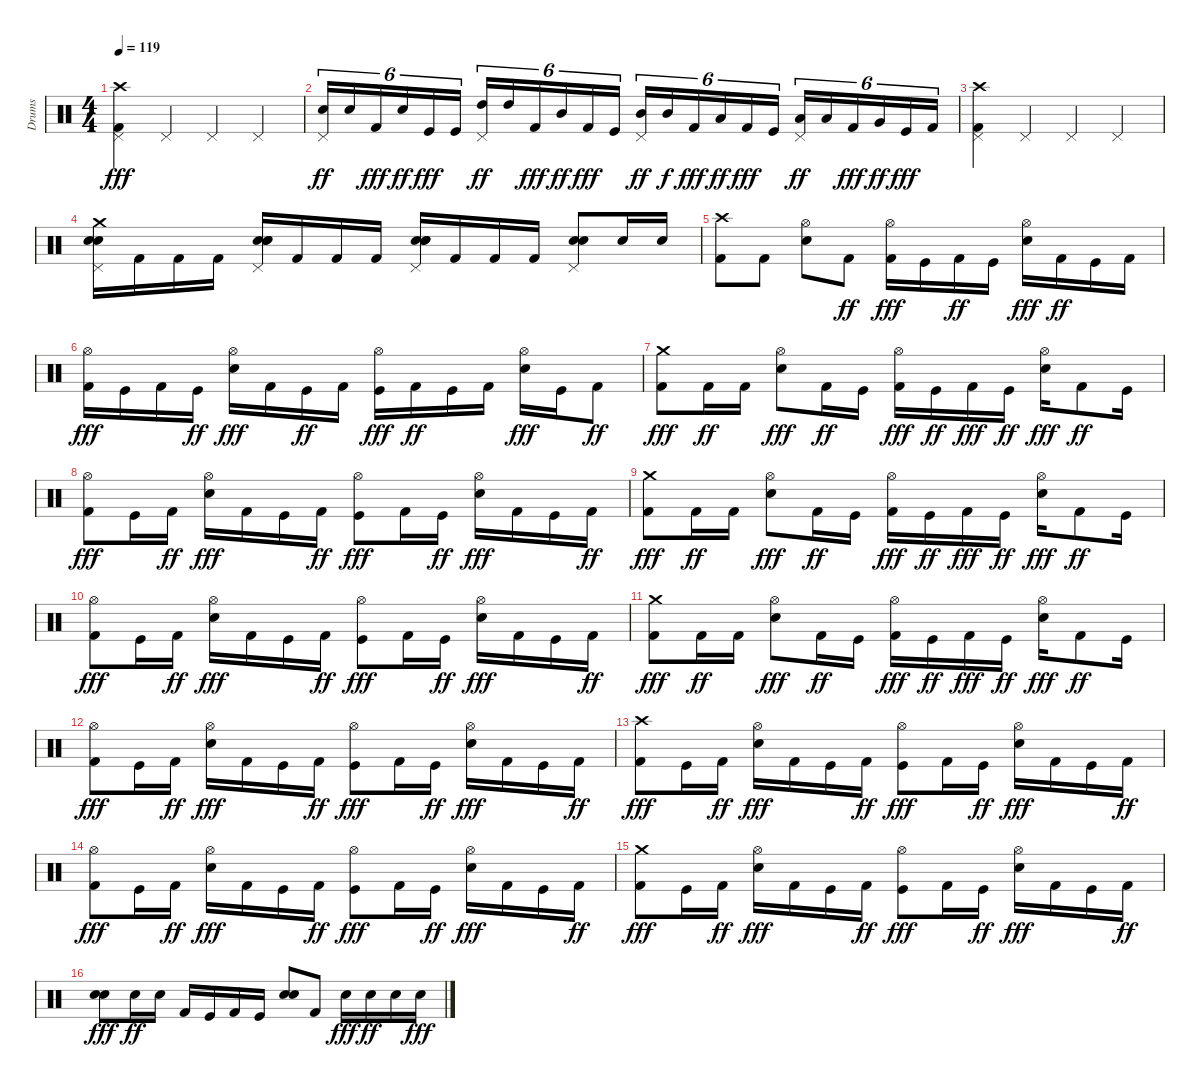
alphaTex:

\track ("Drums" "Drums") {instrument percussion}
\staff {score}
\articulation defaults
\ts (4 4)
\tempo 119
\clef neutral
\ks c
("Pedal Hi-Hat (hit)" "Kick (hit) 2" "Crash high (hit)").4{dy fff} "Pedal Hi-Hat (hit)".4 "Pedal Hi-Hat (hit)".4 "Pedal Hi-Hat (hit)".4 |
("Pedal Hi-Hat (hit)" "Electric Snare (hit)").16{tu (6 4) dy ff} "Snare (hit) 2".16{tu (6 4)} "Kick (hit) 2".16{tu (6 4) dy fff} "Snare (hit) 2".16{tu (6 4) dy ff} "Kick (hit)".16{tu (6 4) dy fff} "Kick (hit)".16{tu (6 4)} ("Pedal Hi-Hat (hit)" "High Tom (hit)").16{tu (6 4) dy ff} "High Tom (hit)".16{tu (6 4)} "Kick (hit) 2".16{tu (6 4) dy fff} "Mid Tom (hit)".16{tu (6 4) dy ff} "Kick (hit) 2".16{tu (6 4) dy fff} "Kick (hit)".16{tu (6 4)} ("Pedal Hi-Hat (hit)" "Mid Tom (hit)").16{tu (6 4) dy ff} "Mid Tom (hit)".16{tu (6 4) dy f} "Kick (hit) 2".16{tu (6 4) dy fff} "Low Tom (hit)".16{tu (6 4) dy ff} "Kick (hit) 2".16{tu (6 4) dy fff} "Kick (hit)".16{tu (6 4)} ("Pedal Hi-Hat (hit)" "Low Tom (hit)").16{tu (6 4) dy ff} "Low Tom (hit)".16{tu (6 4)} "Kick (hit) 2".16{tu (6 4) dy fff} "Very Low Tom (hit)".16{tu (6 4) dy ff} "Kick (hit)".16{tu (6 4) dy fff} "Kick (hit) 2".16{tu (6 4)} |
("Pedal Hi-Hat (hit)" "Kick (hit) 2" "Crash high (hit)").4 "Pedal Hi-Hat (hit)".4 "Pedal Hi-Hat (hit)".4 "Pedal Hi-Hat (hit)".4 |
("Pedal Hi-Hat (hit)" "Snare (hit) 2" "Crash medium (hit)" "Snare (hit) 2").16 "Kick (hit) 2".16 "Kick (hit) 2".16 "Kick (hit) 2".16 ("Pedal Hi-Hat (hit)" "Snare (hit) 2" "Snare (hit) 2" "Snare (hit) 2").16 "Kick (hit) 2".16 "Kick (hit) 2".16 "Kick (hit) 2".16 ("Pedal Hi-Hat (hit)" "Snare (hit) 2" "Snare (hit) 2" "Snare (hit) 2").16 "Kick (hit) 2".16 "Kick (hit) 2".16 "Kick (hit) 2".16 ("Pedal Hi-Hat (hit)" "Snare (hit) 2" "Snare (hit) 2").8 "Electric Snare (hit)".16 "Electric Snare (hit)".16 |
("Kick (hit) 2" "Crash high (hit)").8 "Kick (hit) 2".8 ("Hi-Hat (open)" "Snare (hit) 2").8 "Kick (hit) 2".8{dy ff} ("Hi-Hat (open)" "Kick (hit) 2").16{dy fff} "Kick (hit)".16 "Kick (hit) 2".16{dy ff} "Kick (hit)".16 ("Hi-Hat (open)" "Snare (hit) 2").16{dy fff} "Kick (hit) 2".16{dy ff} "Kick (hit)".16 "Kick (hit) 2".16 |
("Hi-Hat (open)" "Kick (hit) 2").16{dy fff} "Kick (hit)".16 "Kick (hit) 2".16 "Kick (hit)".16{dy ff} ("Hi-Hat (open)" "Snare (hit) 2").16{dy fff} "Kick (hit) 2".16 "Kick (hit)".16{dy ff} "Kick (hit) 2".16 ("Hi-Hat (open)" "Kick (hit)").16{dy fff} "Kick (hit) 2".16{dy ff} "Kick (hit)".16 "Kick (hit) 2".16 ("Hi-Hat (open)" "Snare (hit) 2").16{dy fff} "Kick (hit)".16 "Kick (hit) 2".8{dy ff} |
("Kick (hit) 2" "Crash medium (hit)").8{dy fff} "Kick (hit) 2".16{dy ff} "Kick (hit) 2".16 ("Hi-Hat (open)" "Snare (hit) 2").8{dy fff} "Kick (hit) 2".16{dy ff} "Kick (hit)".16 ("Hi-Hat (open)" "Kick (hit) 2").16{dy fff} "Kick (hit)".16{dy ff} "Kick (hit) 2".16{dy fff} "Kick (hit)".16{dy ff} ("Hi-Hat (open)" "Snare (hit) 2").16{dy fff} "Kick (hit) 2".8{dy ff} "Kick (hit)".16 |
("Hi-Hat (open)" "Kick (hit) 2").8{dy fff} "Kick (hit)".16 "Kick (hit) 2".16{dy ff} ("Hi-Hat (open)" "Snare (hit) 2").16{dy fff} "Kick (hit) 2".16 "Kick (hit)".16 "Kick (hit) 2".16{dy ff} ("Hi-Hat (open)" "Kick (hit)").8{dy fff} "Kick (hit) 2".16 "Kick (hit)".16{dy ff} ("Hi-Hat (open)" "Snare (hit) 2").16{dy fff} "Kick (hit) 2".16 "Kick (hit)".16 "Kick (hit) 2".16{dy ff} |
("Kick (hit) 2" "Crash medium (hit)").8{dy fff} "Kick (hit) 2".16{dy ff} "Kick (hit) 2".16 ("Hi-Hat (open)" "Snare (hit) 2").8{dy fff} "Kick (hit) 2".16{dy ff} "Kick (hit)".16 ("Hi-Hat (open)" "Kick (hit) 2").16{dy fff} "Kick (hit)".16{dy ff} "Kick (hit) 2".16{dy fff} "Kick (hit)".16{dy ff} ("Hi-Hat (open)" "Snare (hit) 2").16{dy fff} "Kick (hit) 2".8{dy ff} "Kick (hit)".16 |
("Hi-Hat (open)" "Kick (hit) 2").8{dy fff} "Kick (hit)".16 "Kick (hit) 2".16{dy ff} ("Hi-Hat (open)" "Snare (hit) 2").16{dy fff} "Kick (hit) 2".16 "Kick (hit)".16 "Kick (hit) 2".16{dy ff} ("Hi-Hat (open)" "Kick (hit)").8{dy fff} "Kick (hit) 2".16 "Kick (hit)".16{dy ff} ("Hi-Hat (open)" "Snare (hit) 2").16{dy fff} "Kick (hit) 2".16 "Kick (hit)".16 "Kick (hit) 2".16{dy ff} |
("Kick (hit) 2" "Crash medium (hit)").8{dy fff} "Kick (hit) 2".16{dy ff} "Kick (hit) 2".16 ("Hi-Hat (open)" "Snare (hit) 2").8{dy fff} "Kick (hit) 2".16{dy ff} "Kick (hit)".16 ("Hi-Hat (open)" "Kick (hit) 2").16{dy fff} "Kick (hit)".16{dy ff} "Kick (hit) 2".16{dy fff} "Kick (hit)".16{dy ff} ("Hi-Hat (open)" "Snare (hit) 2").16{dy fff} "Kick (hit) 2".8{dy ff} "Kick (hit)".16 |
("Hi-Hat (open)" "Kick (hit) 2").8{dy fff} "Kick (hit)".16 "Kick (hit) 2".16{dy ff} ("Hi-Hat (open)" "Snare (hit) 2").16{dy fff} "Kick (hit) 2".16 "Kick (hit)".16 "Kick (hit) 2".16{dy ff} ("Hi-Hat (open)" "Kick (hit)").8{dy fff} "Kick (hit) 2".16 "Kick (hit)".16{dy ff} ("Hi-Hat (open)" "Snare (hit) 2").16{dy fff} "Kick (hit) 2".16 "Kick (hit)".16 "Kick (hit) 2".16{dy ff} |
("Kick (hit) 2" "Crash high (hit)").8{dy fff} "Kick (hit)".16 "Kick (hit) 2".16{dy ff} ("Hi-Hat (open)" "Snare (hit) 2").16{dy fff} "Kick (hit) 2".16 "Kick (hit)".16 "Kick (hit) 2".16{dy ff} ("Hi-Hat (open)" "Kick (hit)").8{dy fff} "Kick (hit) 2".16 "Kick (hit)".16{dy ff} ("Hi-Hat (open)" "Snare (hit) 2").16{dy fff} "Kick (hit) 2".16 "Kick (hit)".16 "Kick (hit) 2".16{dy ff} |
("Hi-Hat (open)" "Kick (hit) 2").8{dy fff} "Kick (hit)".16 "Kick (hit) 2".16{dy ff} ("Hi-Hat (open)" "Snare (hit) 2").16{dy fff} "Kick (hit) 2".16 "Kick (hit)".16 "Kick (hit) 2".16{dy ff} ("Hi-Hat (open)" "Kick (hit)").8{dy fff} "Kick (hit) 2".16 "Kick (hit)".16{dy ff} ("Hi-Hat (open)" "Snare (hit) 2").16{dy fff} "Kick (hit) 2".16 "Kick (hit)".16 "Kick (hit) 2".16{dy ff} |
("Kick (hit) 2" "Crash medium (hit)").8{dy fff} "Kick (hit)".16 "Kick (hit) 2".16{dy ff} ("Hi-Hat (open)" "Snare (hit) 2").16{dy fff} "Kick (hit) 2".16 "Kick (hit)".16 "Kick (hit) 2".16{dy ff} ("Hi-Hat (open)" "Kick (hit)").8{dy fff} "Kick (hit) 2".16 "Kick (hit)".16{dy ff} ("Hi-Hat (open)" "Snare (hit) 2").16{dy fff} "Kick (hit) 2".16 "Kick (hit)".16 "Kick (hit) 2".16{dy ff} |
("Snare (hit) 2" "Snare (hit) 2").8{dy fff} "Snare (hit) 2".16{dy ff} "Snare (hit) 2".16 "Kick (hit) 2".16 "Kick (hit)".16 "Kick (hit) 2".16 "Kick (hit)".16 ("Snare (hit) 2" "Snare (hit) 2").8 "Kick (hit) 2".8 "Snare (hit) 2".16{dy fff} "Snare (hit) 2".16{dy ff} "Snare (hit) 2".16 "Snare (hit) 2".16{dy fff}
